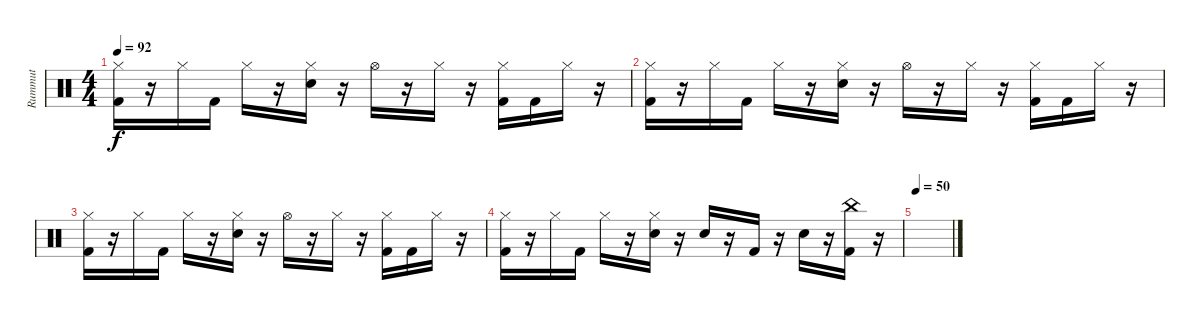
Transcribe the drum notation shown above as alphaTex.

\track ("Rummut" "Rummut") {instrument percussion}
\staff {score}
\articulation defaults
\ts (4 4)
\tempo 92
\clef neutral
\ks c
("Hi-Hat (closed)" "Kick (hit) 2").16{dy f} r.16 "Hi-Hat (closed)".16 "Kick (hit) 2".16 "Hi-Hat (closed)".16 r.16 ("Hi-Hat (closed)" "Snare (hit) 2").16 r.16 "Hi-Hat (open)".16 r.16 "Hi-Hat (closed)".16 r.16 ("Hi-Hat (closed)" "Kick (hit) 2").16 "Kick (hit) 2".16 "Hi-Hat (closed)".16 r.16 |
("Hi-Hat (closed)" "Kick (hit) 2").16 r.16 "Hi-Hat (closed)".16 "Kick (hit) 2".16 "Hi-Hat (closed)".16 r.16 ("Hi-Hat (closed)" "Snare (hit) 2").16 r.16 "Hi-Hat (open)".16 r.16 "Hi-Hat (closed)".16 r.16 ("Hi-Hat (closed)" "Kick (hit) 2").16 "Kick (hit) 2".16 "Hi-Hat (closed)".16 r.16 |
("Hi-Hat (closed)" "Kick (hit) 2").16 r.16 "Hi-Hat (closed)".16 "Kick (hit) 2".16 "Hi-Hat (closed)".16 r.16 ("Hi-Hat (closed)" "Snare (hit) 2").16 r.16 "Hi-Hat (open)".16 r.16 "Hi-Hat (closed)".16 r.16 ("Hi-Hat (closed)" "Kick (hit) 2").16 "Kick (hit) 2".16 "Hi-Hat (closed)".16 r.16 |
("Hi-Hat (closed)" "Kick (hit) 2").16 r.16 "Hi-Hat (closed)".16 "Kick (hit) 2".16 "Hi-Hat (closed)".16 r.16 ("Hi-Hat (closed)" "Snare (hit) 2").16 r.16 "Snare (hit) 2".16 r.16 "Kick (hit) 2".16 r.16 "Snare (hit) 2".16 r.16 ("China (hit)" "Kick (hit) 2").16 r.16 |
\tempo 50
